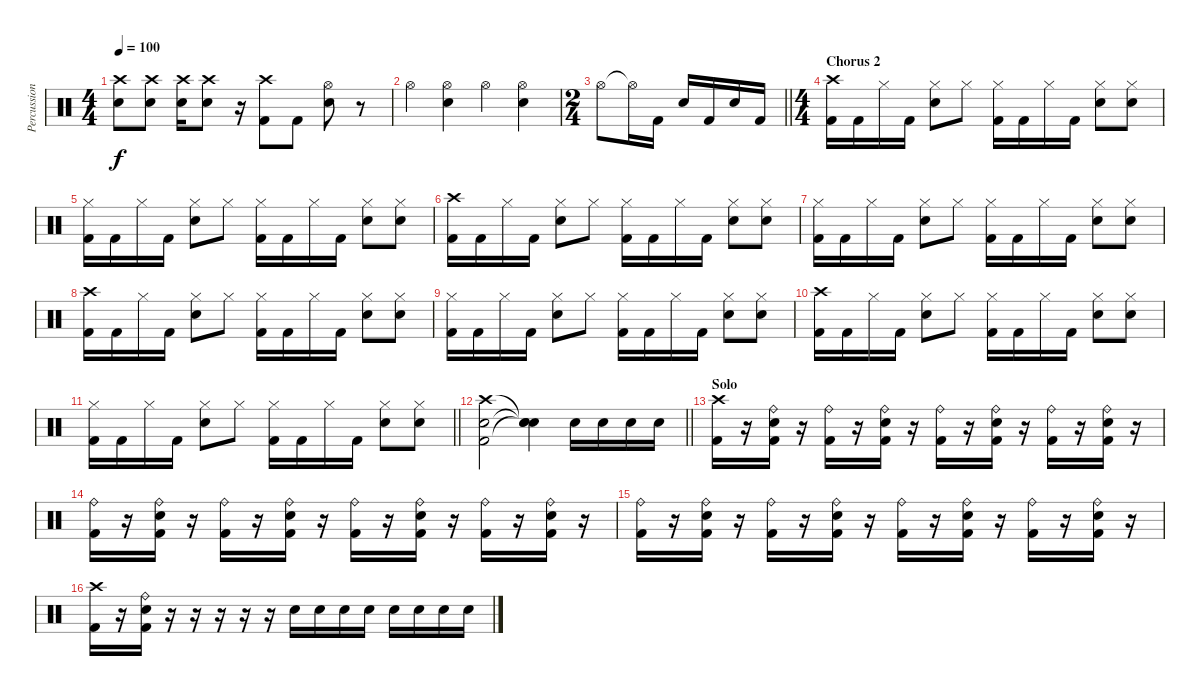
\track ("Percussion" "Percussion") {instrument percussion}
\staff {score}
\articulation defaults
\ts (4 4)
\tempo 100
\clef neutral
\ks c
("Crash high (hit)" "Snare (hit) 2").8{dy f} ("Crash high (hit)" "Snare (hit) 2").8 ("Crash high (hit)" "Snare (hit) 2").16 ("Crash high (hit)" "Snare (hit) 2").8 r.16 ("Crash high (hit)" "Kick (hit) 2").8 "Kick (hit) 2".8 ("Hi-Hat (open)" "Snare (hit) 2").8 r.8 |
"Hi-Hat (open)".4 ("Hi-Hat (open)" "Snare (hit) 2").4 "Hi-Hat (open)".4 ("Hi-Hat (open)" "Snare (hit) 2").4 |
\ts (2 4)
\barLineRight lightlight "Hi-Hat (open)".8 "Hi-Hat (open)"{t}.16 "Kick (hit) 2".16 "Snare (hit) 2".16 "Kick (hit) 2".16 "Snare (hit) 2".16 "Kick (hit) 2".16
|
\ts (4 4)
\section ("" "Chorus 2")
("Crash high (hit)" "Kick (hit) 2").16 "Kick (hit) 2".16 "Hi-Hat (closed)".16 "Kick (hit) 2".16 ("Hi-Hat (closed)" "Snare (hit) 2").8 "Hi-Hat (closed)".8 ("Hi-Hat (closed)" "Kick (hit) 2").16 "Kick (hit) 2".16 "Hi-Hat (closed)".16 "Kick (hit) 2".16 ("Hi-Hat (closed)" "Snare (hit) 2").8 ("Hi-Hat (closed)" "Snare (hit) 2").8 |
("Hi-Hat (closed)" "Kick (hit) 2").16 "Kick (hit) 2".16 "Hi-Hat (closed)".16 "Kick (hit) 2".16 ("Hi-Hat (closed)" "Snare (hit) 2").8 "Hi-Hat (closed)".8 ("Hi-Hat (closed)" "Kick (hit) 2").16 "Kick (hit) 2".16 "Hi-Hat (closed)".16 "Kick (hit) 2".16 ("Hi-Hat (closed)" "Snare (hit) 2").8 ("Hi-Hat (closed)" "Snare (hit) 2").8 |
("Crash high (hit)" "Kick (hit) 2").16 "Kick (hit) 2".16 "Hi-Hat (closed)".16 "Kick (hit) 2".16 ("Hi-Hat (closed)" "Snare (hit) 2").8 "Hi-Hat (closed)".8 ("Hi-Hat (closed)" "Kick (hit) 2").16 "Kick (hit) 2".16 "Hi-Hat (closed)".16 "Kick (hit) 2".16 ("Hi-Hat (closed)" "Snare (hit) 2").8 ("Hi-Hat (closed)" "Snare (hit) 2").8 |
("Hi-Hat (closed)" "Kick (hit) 2").16 "Kick (hit) 2".16 "Hi-Hat (closed)".16 "Kick (hit) 2".16 ("Hi-Hat (closed)" "Snare (hit) 2").8 "Hi-Hat (closed)".8 ("Hi-Hat (closed)" "Kick (hit) 2").16 "Kick (hit) 2".16 "Hi-Hat (closed)".16 "Kick (hit) 2".16 ("Hi-Hat (closed)" "Snare (hit) 2").8 ("Hi-Hat (closed)" "Snare (hit) 2").8 |
("Crash high (hit)" "Kick (hit) 2").16 "Kick (hit) 2".16 "Hi-Hat (closed)".16 "Kick (hit) 2".16 ("Hi-Hat (closed)" "Snare (hit) 2").8 "Hi-Hat (closed)".8 ("Hi-Hat (closed)" "Kick (hit) 2").16 "Kick (hit) 2".16 "Hi-Hat (closed)".16 "Kick (hit) 2".16 ("Hi-Hat (closed)" "Snare (hit) 2").8 ("Hi-Hat (closed)" "Snare (hit) 2").8 |
("Hi-Hat (closed)" "Kick (hit) 2").16 "Kick (hit) 2".16 "Hi-Hat (closed)".16 "Kick (hit) 2".16 ("Hi-Hat (closed)" "Snare (hit) 2").8 "Hi-Hat (closed)".8 ("Hi-Hat (closed)" "Kick (hit) 2").16 "Kick (hit) 2".16 "Hi-Hat (closed)".16 "Kick (hit) 2".16 ("Hi-Hat (closed)" "Snare (hit) 2").8 ("Hi-Hat (closed)" "Snare (hit) 2").8 |
("Crash high (hit)" "Kick (hit) 2").16 "Kick (hit) 2".16 "Hi-Hat (closed)".16 "Kick (hit) 2".16 ("Hi-Hat (closed)" "Snare (hit) 2").8 "Hi-Hat (closed)".8 ("Hi-Hat (closed)" "Kick (hit) 2").16 "Kick (hit) 2".16 "Hi-Hat (closed)".16 "Kick (hit) 2".16 ("Hi-Hat (closed)" "Snare (hit) 2").8 ("Hi-Hat (closed)" "Snare (hit) 2").8 |
\barLineRight lightlight
("Hi-Hat (closed)" "Kick (hit) 2").16 "Kick (hit) 2".16 "Hi-Hat (closed)".16 "Kick (hit) 2".16 ("Hi-Hat (closed)" "Snare (hit) 2").8 "Hi-Hat (closed)".8 ("Hi-Hat (closed)" "Kick (hit) 2").16 "Kick (hit) 2".16 "Hi-Hat (closed)".16 "Kick (hit) 2".16 ("Hi-Hat (closed)" "Snare (hit) 2").8 ("Hi-Hat (closed)" "Snare (hit) 2").8 |
\barLineRight lightlight
("Crash high (hit)" "Snare (hit) 2" "Kick (hit) 2").2 ("Snare (hit)"{t} "Snare (hit)"{t} "Snare (hit)"{t}).4 "Snare (hit) 2".16 "Snare (hit) 2".16 "Snare (hit) 2".16 "Snare (hit) 2".16 |
\section ("" "Solo")
("Crash high (hit)" "Kick (hit) 2").16 r.16 ("Ride (bell)" "Snare (hit) 2" "Kick (hit) 2").16 r.16 ("Ride (bell)" "Kick (hit) 2").16 r.16 ("Ride (bell)" "Snare (hit) 2" "Kick (hit) 2").16 r.16 ("Ride (bell)" "Kick (hit) 2").16 r.16 ("Ride (bell)" "Snare (hit) 2" "Kick (hit) 2").16 r.16 ("Ride (bell)" "Kick (hit) 2").16 r.16 ("Ride (bell)" "Snare (hit) 2" "Kick (hit) 2").16 r.16 |
("Ride (bell)" "Kick (hit) 2").16 r.16 ("Ride (bell)" "Snare (hit) 2" "Kick (hit) 2").16 r.16 ("Ride (bell)" "Kick (hit) 2").16 r.16 ("Ride (bell)" "Snare (hit) 2" "Kick (hit) 2").16 r.16 ("Ride (bell)" "Kick (hit) 2").16 r.16 ("Ride (bell)" "Snare (hit) 2" "Kick (hit) 2").16 r.16 ("Ride (bell)" "Kick (hit) 2").16 r.16 ("Ride (bell)" "Snare (hit) 2" "Kick (hit) 2").16 r.16 |
("Ride (bell)" "Kick (hit) 2").16 r.16 ("Ride (bell)" "Snare (hit) 2" "Kick (hit) 2").16 r.16 ("Ride (bell)" "Kick (hit) 2").16 r.16 ("Ride (bell)" "Snare (hit) 2" "Kick (hit) 2").16 r.16 ("Ride (bell)" "Kick (hit) 2").16 r.16 ("Ride (bell)" "Snare (hit) 2" "Kick (hit) 2").16 r.16 ("Ride (bell)" "Kick (hit) 2").16 r.16 ("Ride (bell)" "Snare (hit) 2" "Kick (hit) 2").16 r.16 |
("Crash high (hit)" "Kick (hit) 2").16 r.16 ("Ride (bell)" "Snare (hit) 2" "Kick (hit) 2").16 r.16 r.16 r.16 r.16 r.16 "Snare (hit) 2".16 "Snare (hit) 2".16 "Snare (hit) 2".16 "Snare (hit) 2".16 "Snare (hit) 2".16 "Snare (hit) 2".16 "Snare (hit) 2".16 "Snare (hit) 2".16
